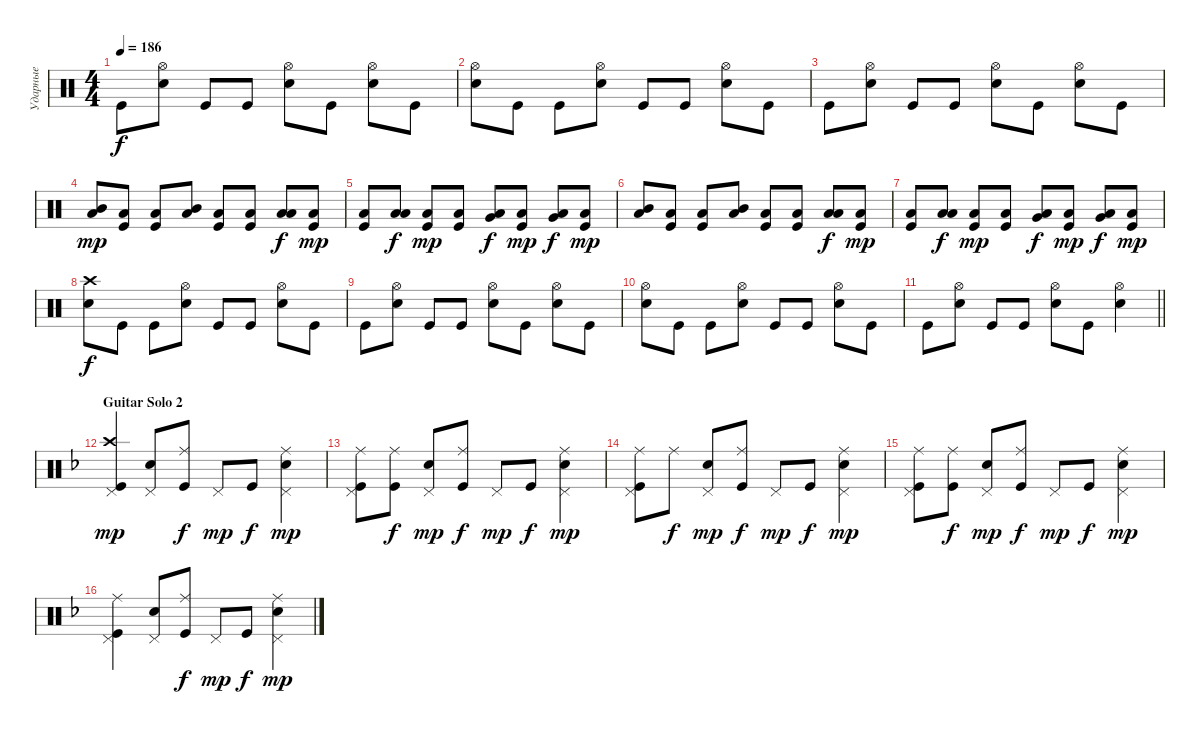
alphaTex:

\track ("Ударные" "Ударные") {instrument percussion}
\staff {score}
\articulation defaults
\ts (4 4)
\tempo 186
\clef neutral
\ks aminor "Kick (hit)".8{dy f}
("Snare (hit) 2" "Hi-Hat (open)").8 "Kick (hit)".8 "Kick (hit)".8 ("Snare (hit) 2" "Hi-Hat (open)").8 "Kick (hit)".8 ("Snare (hit) 2" "Hi-Hat (open)").8 "Kick (hit)".8 |
("Snare (hit) 2" "Hi-Hat (open)").8 "Kick (hit)".8 "Kick (hit)".8 ("Snare (hit) 2" "Hi-Hat (open)").8 "Kick (hit)".8 "Kick (hit)".8 ("Snare (hit) 2" "Hi-Hat (open)").8 "Kick (hit)".8 |
"Kick (hit)".8 ("Snare (hit) 2" "Hi-Hat (open)").8 "Kick (hit)".8 "Kick (hit)".8 ("Snare (hit) 2" "Hi-Hat (open)").8 "Kick (hit)".8 ("Snare (hit) 2" "Hi-Hat (open)").8 "Kick (hit)".8 |
("Mid Tom (hit)" "Low Floor Tom (hit)").8{bd 240 dy mp} ("Kick (hit)" "Low Floor Tom (hit)").8 ("Kick (hit)" "Low Floor Tom (hit)").8 ("Mid Tom (hit)" "Low Floor Tom (hit)").8{bd 240} ("Kick (hit)" "Low Floor Tom (hit)").8 ("Kick (hit)" "Low Floor Tom (hit)").8 ("Low Tom (hit)" "Low Floor Tom (hit)").8{bd 240 dy f} ("Kick (hit)" "Low Floor Tom (hit)").8{dy mp} |
("Kick (hit)" "Low Floor Tom (hit)").8 ("Low Tom (hit)" "Low Floor Tom (hit)").8{bd 240 dy f} ("Kick (hit)" "Low Floor Tom (hit)").8{dy mp} ("Kick (hit)" "Low Floor Tom (hit)").8 ("Very Low Tom (hit)" "Low Floor Tom (hit)").8{bd 240 dy f} ("Kick (hit)" "Low Floor Tom (hit)").8{dy mp} ("Very Low Tom (hit)" "Low Floor Tom (hit)").8{bd 480 dy f} ("Kick (hit)" "Low Floor Tom (hit)").8{dy mp} |
("Mid Tom (hit)" "Low Floor Tom (hit)").8{bd 240} ("Kick (hit)" "Low Floor Tom (hit)").8 ("Kick (hit)" "Low Floor Tom (hit)").8 ("Mid Tom (hit)" "Low Floor Tom (hit)").8{bd 240} ("Kick (hit)" "Low Floor Tom (hit)").8 ("Kick (hit)" "Low Floor Tom (hit)").8 ("Low Tom (hit)" "Low Floor Tom (hit)").8{bd 240 dy f} ("Kick (hit)" "Low Floor Tom (hit)").8{dy mp} |
("Kick (hit)" "Low Floor Tom (hit)").8 ("Low Tom (hit)" "Low Floor Tom (hit)").8{bd 240 dy f} ("Kick (hit)" "Low Floor Tom (hit)").8{dy mp} ("Kick (hit)" "Low Floor Tom (hit)").8 ("Very Low Tom (hit)" "Low Floor Tom (hit)").8{bd 240 dy f} ("Kick (hit)" "Low Floor Tom (hit)").8{dy mp} ("Very Low Tom (hit)" "Low Floor Tom (hit)").8{bd 480 dy f} ("Kick (hit)" "Low Floor Tom (hit)").8{dy mp} |
("Snare (hit) 2" "Crash high (hit)").8{dy f} "Kick (hit)".8 "Kick (hit)".8 ("Snare (hit) 2" "Hi-Hat (open)").8 "Kick (hit)".8 "Kick (hit)".8 ("Snare (hit) 2" "Hi-Hat (open)").8 "Kick (hit)".8 |
"Kick (hit)".8 ("Snare (hit) 2" "Hi-Hat (open)").8 "Kick (hit)".8 "Kick (hit)".8 ("Snare (hit) 2" "Hi-Hat (open)").8 "Kick (hit)".8 ("Snare (hit) 2" "Hi-Hat (open)").8 "Kick (hit)".8 |
("Snare (hit) 2" "Hi-Hat (open)").8 "Kick (hit)".8 "Kick (hit)".8 ("Snare (hit) 2" "Hi-Hat (open)").8 "Kick (hit)".8 "Kick (hit)".8 ("Snare (hit) 2" "Hi-Hat (open)").8 "Kick (hit)".8 |
\barLineRight lightlight "Kick (hit)".8
("Snare (hit) 2" "Hi-Hat (open)").8 "Kick (hit)".8 "Kick (hit)".8 ("Snare (hit) 2" "Hi-Hat (open)").8 "Kick (hit)".8 ("Snare (hit) 2" "Hi-Hat (open)").4 |
\section ("" "Guitar Solo 2")
\ks dminor
("Kick (hit)" "Crash high (hit)" "Pedal Hi-Hat (hit)").4{dy mp} ("Snare (hit) 2" "Pedal Hi-Hat (hit)").8 ("Kick (hit)" "Ride (middle)").8{dy f} "Pedal Hi-Hat (hit)".8{dy mp} "Kick (hit)".8{dy f} ("Snare (hit) 2" "Ride (middle)" "Pedal Hi-Hat (hit)").4{dy mp} |
("Kick (hit)" "Ride (middle)" "Pedal Hi-Hat (hit)").8 ("Ride (middle)" "Kick (hit)").8{dy f} ("Snare (hit) 2" "Pedal Hi-Hat (hit)").8{dy mp} ("Kick (hit)" "Ride (middle)").8{dy f} "Pedal Hi-Hat (hit)".8{dy mp} "Kick (hit)".8{dy f} ("Snare (hit) 2" "Ride (middle)" "Pedal Hi-Hat (hit)").4{dy mp} |
("Kick (hit)" "Ride (middle)" "Pedal Hi-Hat (hit)").8 "Ride (middle)".8{dy f} ("Snare (hit) 2" "Pedal Hi-Hat (hit)").8{dy mp} ("Kick (hit)" "Ride (middle)").8{dy f} "Pedal Hi-Hat (hit)".8{dy mp} "Kick (hit)".8{dy f} ("Snare (hit) 2" "Ride (middle)" "Pedal Hi-Hat (hit)").4{dy mp} |
("Kick (hit)" "Ride (middle)" "Pedal Hi-Hat (hit)").8 ("Ride (middle)" "Kick (hit)").8{dy f} ("Snare (hit) 2" "Pedal Hi-Hat (hit)").8{dy mp} ("Kick (hit)" "Ride (middle)").8{dy f} "Pedal Hi-Hat (hit)".8{dy mp} "Kick (hit)".8{dy f} ("Snare (hit) 2" "Ride (middle)" "Pedal Hi-Hat (hit)").4{dy mp} |
("Kick (hit)" "Ride (middle)" "Pedal Hi-Hat (hit)").4 ("Snare (hit) 2" "Pedal Hi-Hat (hit)").8 ("Kick (hit)" "Ride (middle)").8{dy f} "Pedal Hi-Hat (hit)".8{dy mp} "Kick (hit)".8{dy f} ("Snare (hit) 2" "Ride (middle)" "Pedal Hi-Hat (hit)").4{dy mp}
